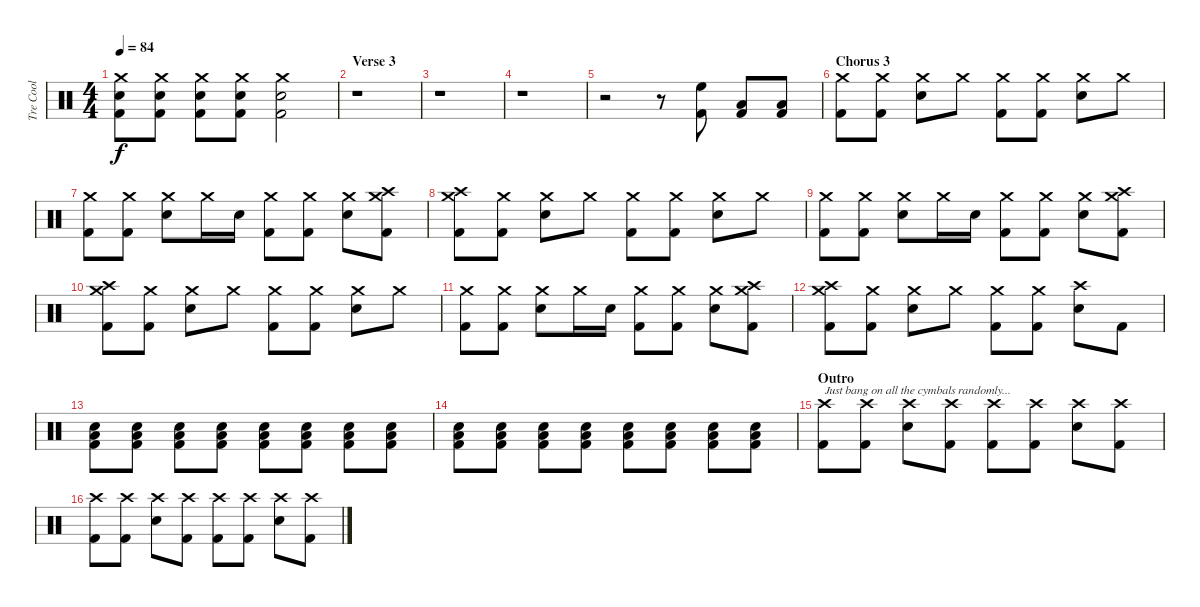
\track ("Tre Cool" "Tre Cool") {instrument percussion}
\staff {score}
\articulation defaults
\ts (4 4)
\tempo 84
\clef neutral
\ks c
("Crash medium (hit)" "Snare (hit) 2" "Kick (hit) 2").8{dy f} ("Crash medium (hit)" "Snare (hit) 2" "Kick (hit) 2").8 ("Crash medium (hit)" "Snare (hit) 2" "Kick (hit) 2").8 ("Crash medium (hit)" "Snare (hit) 2" "Kick (hit) 2").8 ("Crash medium (hit)" "Snare (hit) 2" "Kick (hit) 2").2 |
\section ("" "Verse 3")
r.1 |
r.1 |
r.1 |
r.2 r.8 ("High Floor Tom (hit)" "Kick (hit) 2").8 ("Low Tom (hit)" "Kick (hit) 2").8 ("Low Tom (hit)" "Kick (hit) 2").8 |
\section ("" "Chorus 3")
("Crash medium (hit)" "Kick (hit) 2").8 ("Crash medium (hit)" "Kick (hit) 2").8 ("Crash medium (hit)" "Snare (hit) 2").8 "Crash medium (hit)".8 ("Crash medium (hit)" "Kick (hit) 2").8 ("Crash medium (hit)" "Kick (hit) 2").8 ("Crash medium (hit)" "Snare (hit) 2").8 "Crash medium (hit)".8 |
("Crash medium (hit)" "Kick (hit) 2").8 ("Crash medium (hit)" "Kick (hit) 2").8 ("Crash medium (hit)" "Snare (hit) 2").8 "Crash medium (hit)".16 "Snare (hit) 2".16 ("Crash medium (hit)" "Kick (hit) 2").8 ("Crash medium (hit)" "Kick (hit) 2").8 ("Crash medium (hit)" "Snare (hit) 2").8 ("Crash medium (hit)" "Crash high (hit)" "Kick (hit) 2").8 |
("Crash medium (hit)" "Crash high (hit)" "Kick (hit) 2").8 ("Crash medium (hit)" "Kick (hit) 2").8 ("Crash medium (hit)" "Snare (hit) 2").8 "Crash medium (hit)".8 ("Crash medium (hit)" "Kick (hit) 2").8 ("Crash medium (hit)" "Kick (hit) 2").8 ("Crash medium (hit)" "Snare (hit) 2").8 "Crash medium (hit)".8 |
("Crash medium (hit)" "Kick (hit) 2").8 ("Crash medium (hit)" "Kick (hit) 2").8 ("Crash medium (hit)" "Snare (hit) 2").8 "Crash medium (hit)".16 "Snare (hit) 2".16 ("Crash medium (hit)" "Kick (hit) 2").8 ("Crash medium (hit)" "Kick (hit) 2").8 ("Crash medium (hit)" "Snare (hit) 2").8 ("Crash medium (hit)" "Crash high (hit)" "Kick (hit) 2").8 |
("Crash medium (hit)" "Crash high (hit)" "Kick (hit) 2").8 ("Crash medium (hit)" "Kick (hit) 2").8 ("Crash medium (hit)" "Snare (hit) 2").8 "Crash medium (hit)".8 ("Crash medium (hit)" "Kick (hit) 2").8 ("Crash medium (hit)" "Kick (hit) 2").8 ("Crash medium (hit)" "Snare (hit) 2").8 "Crash medium (hit)".8 |
("Crash medium (hit)" "Kick (hit) 2").8 ("Crash medium (hit)" "Kick (hit) 2").8 ("Crash medium (hit)" "Snare (hit) 2").8 "Crash medium (hit)".16 "Snare (hit) 2".16 ("Crash medium (hit)" "Kick (hit) 2").8 ("Crash medium (hit)" "Kick (hit) 2").8 ("Crash medium (hit)" "Snare (hit) 2").8 ("Crash medium (hit)" "Crash high (hit)" "Kick (hit) 2").8 |
("Crash medium (hit)" "Crash high (hit)" "Kick (hit) 2").8 ("Crash medium (hit)" "Kick (hit) 2").8 ("Crash medium (hit)" "Snare (hit) 2").8 "Crash medium (hit)".8 ("Crash medium (hit)" "Kick (hit) 2").8 ("Crash medium (hit)" "Kick (hit) 2").8 ("Crash high (hit)" "Snare (hit) 2").8 "Kick (hit) 2".8 |
("Snare (hit) 2" "Low Tom (hit)" "Kick (hit) 2").8 ("Snare (hit) 2" "Low Tom (hit)" "Kick (hit) 2").8 ("Snare (hit) 2" "Low Tom (hit)" "Kick (hit) 2").8 ("Snare (hit) 2" "Low Tom (hit)" "Kick (hit) 2").8 ("Snare (hit) 2" "Low Tom (hit)" "Kick (hit) 2").8 ("Snare (hit) 2" "Low Tom (hit)" "Kick (hit) 2").8 ("Snare (hit) 2" "Low Tom (hit)" "Kick (hit) 2").8 ("Snare (hit) 2" "Low Tom (hit)" "Kick (hit) 2").8 |
("Snare (hit) 2" "Low Tom (hit)" "Kick (hit) 2").8 ("Snare (hit) 2" "Low Tom (hit)" "Kick (hit) 2").8 ("Snare (hit) 2" "Low Tom (hit)" "Kick (hit) 2").8 ("Snare (hit) 2" "Low Tom (hit)" "Kick (hit) 2").8 ("Snare (hit) 2" "Low Tom (hit)" "Kick (hit) 2").8 ("Snare (hit) 2" "Low Tom (hit)" "Kick (hit) 2").8 ("Snare (hit) 2" "Low Tom (hit)" "Kick (hit) 2").8 ("Snare (hit) 2" "Low Tom (hit)" "Kick (hit) 2").8 |
\section ("" "Outro")
("Crash high (hit)" "Kick (hit) 2").8{txt "Just bang on all the cymbals randomly..."} ("Crash high (hit)" "Kick (hit) 2").8 ("Crash high (hit)" "Snare (hit) 2").8 ("Crash high (hit)" "Kick (hit) 2").8 ("Crash high (hit)" "Kick (hit) 2").8 ("Crash high (hit)" "Kick (hit) 2").8 ("Crash high (hit)" "Snare (hit) 2").8 ("Crash high (hit)" "Kick (hit) 2").8 |
("Crash high (hit)" "Kick (hit) 2").8 ("Crash high (hit)" "Kick (hit) 2").8 ("Crash high (hit)" "Snare (hit) 2").8 ("Crash high (hit)" "Kick (hit) 2").8 ("Crash high (hit)" "Kick (hit) 2").8 ("Crash high (hit)" "Kick (hit) 2").8 ("Crash high (hit)" "Snare (hit) 2").8 ("Crash high (hit)" "Kick (hit) 2").8
